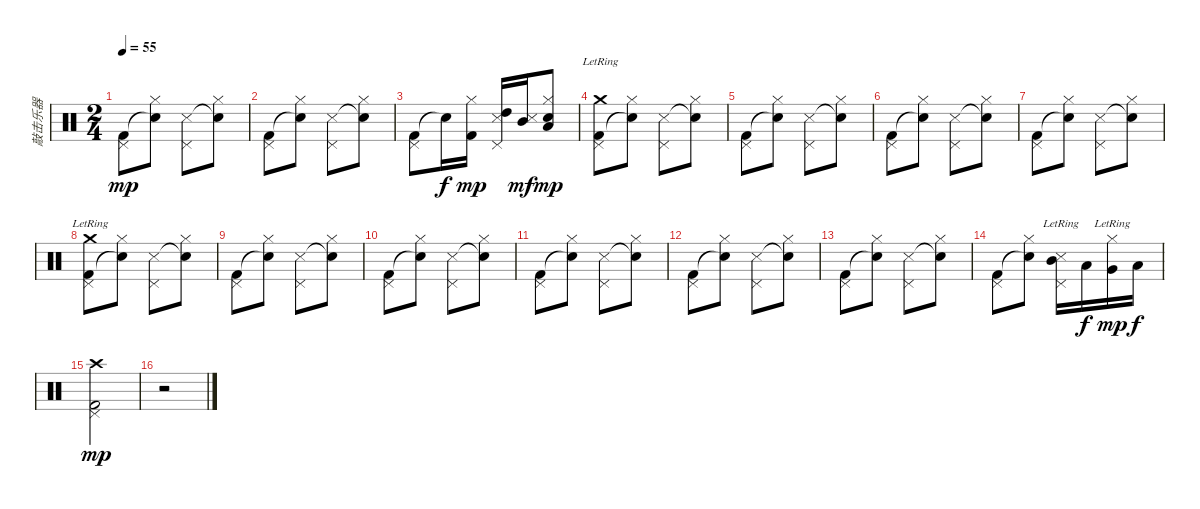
\track ("敲击乐器" "敲击乐器") {instrument percussion}
\staff {score}
\articulation defaults
\ts (2 4)
\tempo 55
\clef neutral
\ks c
("Kick (hit) 2" "Pedal Hi-Hat (hit)").8{dy mp} ("Snare (hit)"{t} "Hi-Hat (closed)").8 ("Snare (side stick) 3" "Pedal Hi-Hat (hit)").8 ("Snare (hit)"{t} "Hi-Hat (closed)").8 |
("Kick (hit) 2" "Pedal Hi-Hat (hit)").8 ("Snare (hit)"{t} "Hi-Hat (closed)").8 ("Snare (side stick) 3" "Pedal Hi-Hat (hit)").8 ("Snare (hit)"{t} "Hi-Hat (closed)").8 |
("Kick (hit) 2" "Pedal Hi-Hat (hit)").8 "Snare (hit)"{t}.16{dy f} ("Kick (hit) 2" "Hi-Hat (closed)").16{dy mp} ("High Tom (hit)" "Metronome (hit)" "Pedal Hi-Hat (hit)").16 ("Mid Tom (hit)" "Metronome (hit)").16{dy mf} ("Low Tom (hit)" "Snare (hit) 2" "Hi-Hat (closed)").8{dy mp} |
("Kick (hit) 2" "Crash medium (hit)"{lr} "Pedal Hi-Hat (hit)").8 ("Snare (hit)"{t} "Hi-Hat (closed)").8 ("Snare (side stick) 3" "Pedal Hi-Hat (hit)").8 ("Snare (hit)"{t} "Hi-Hat (closed)").8 |
("Kick (hit) 2" "Pedal Hi-Hat (hit)").8 ("Snare (hit)"{t} "Hi-Hat (closed)").8 ("Snare (side stick) 3" "Pedal Hi-Hat (hit)").8 ("Snare (hit)"{t} "Hi-Hat (closed)").8 |
("Kick (hit) 2" "Pedal Hi-Hat (hit)").8 ("Snare (hit)"{t} "Hi-Hat (closed)").8 ("Snare (side stick) 3" "Pedal Hi-Hat (hit)").8 ("Snare (hit)"{t} "Hi-Hat (closed)").8 |
("Kick (hit) 2" "Pedal Hi-Hat (hit)").8 ("Snare (hit)"{t} "Hi-Hat (closed)").8 ("Snare (side stick) 3" "Pedal Hi-Hat (hit)").8 ("Snare (hit)"{t} "Hi-Hat (closed)").8 |
("Kick (hit) 2" "Crash medium (hit)"{lr} "Pedal Hi-Hat (hit)").8 ("Snare (hit)"{t} "Hi-Hat (closed)").8 ("Snare (side stick) 3" "Pedal Hi-Hat (hit)").8 ("Snare (hit)"{t} "Hi-Hat (closed)").8 |
("Kick (hit) 2" "Pedal Hi-Hat (hit)").8 ("Snare (hit)"{t} "Hi-Hat (closed)").8 ("Snare (side stick) 3" "Pedal Hi-Hat (hit)").8 ("Snare (hit)"{t} "Hi-Hat (closed)").8 |
("Kick (hit) 2" "Pedal Hi-Hat (hit)").8 ("Snare (hit)"{t} "Hi-Hat (closed)").8 ("Snare (side stick) 3" "Pedal Hi-Hat (hit)").8 ("Snare (hit)"{t} "Hi-Hat (closed)").8 |
("Kick (hit) 2" "Pedal Hi-Hat (hit)").8 ("Snare (hit)"{t} "Hi-Hat (closed)").8 ("Snare (side stick) 3" "Pedal Hi-Hat (hit)").8 ("Snare (hit)"{t} "Hi-Hat (closed)").8 |
("Kick (hit) 2" "Pedal Hi-Hat (hit)").8 ("Snare (hit)"{t} "Hi-Hat (closed)").8 ("Snare (side stick) 3" "Pedal Hi-Hat (hit)").8 ("Snare (hit)"{t} "Hi-Hat (closed)").8 |
("Kick (hit) 2" "Pedal Hi-Hat (hit)").8 ("Snare (hit)"{t} "Hi-Hat (closed)").8 ("Snare (side stick) 3" "Pedal Hi-Hat (hit)").8 ("Snare (hit)"{t} "Hi-Hat (closed)").8 |
("Kick (hit) 2" "Pedal Hi-Hat (hit)").8 ("Snare (hit)"{t} "Hi-Hat (closed)").8 ("Mid Tom (hit)" "Snare (side stick) 3"{lr} "Pedal Hi-Hat (hit)"{lr}).16 "Low Tom (hit)".16{dy f} ("Very Low Tom (hit)" "Hi-Hat (closed)"{lr}).16{dy mp} "Low Floor Tom (hit)".16{dy f} |
("Kick (hit) 2" "Crash high (hit)" "Pedal Hi-Hat (hit)").2{dy mp} |
r.2
